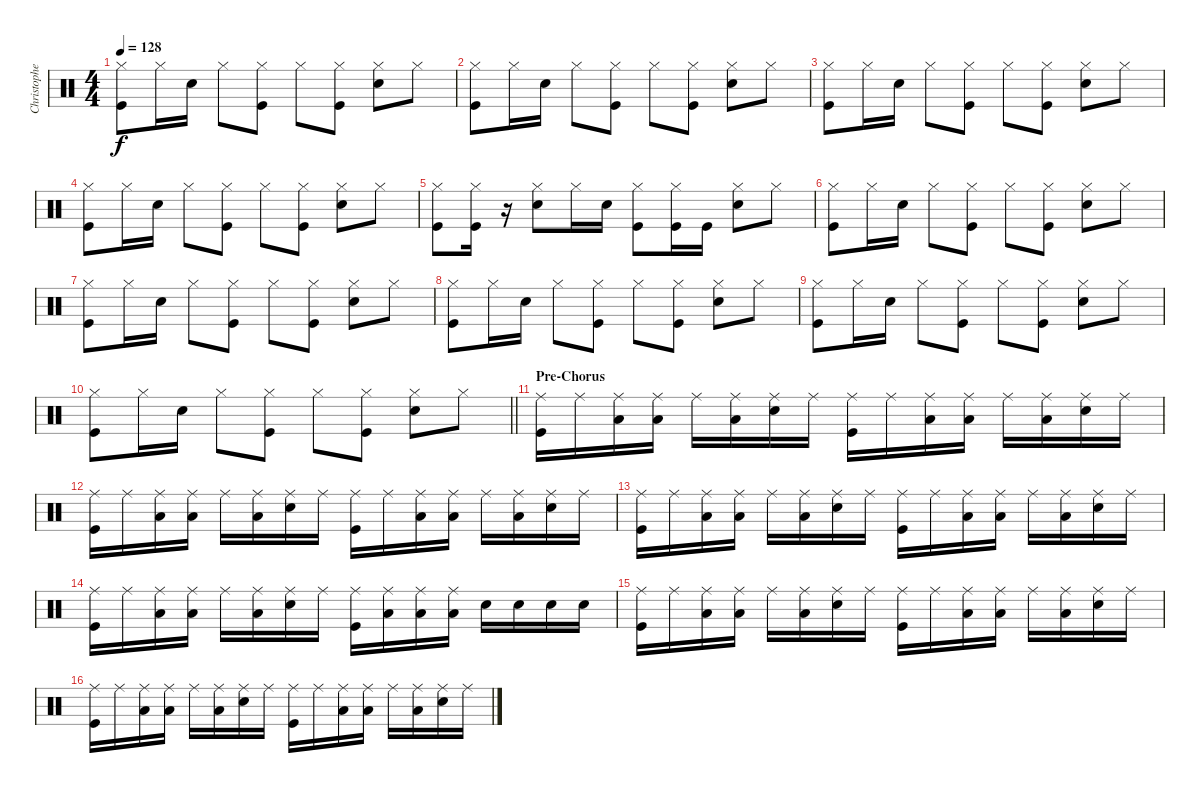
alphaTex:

\track ("Christopher - Drums" "Christophe") {instrument percussion}
\staff {score}
\articulation defaults
\ts (4 4)
\tempo 128
\clef neutral
\ks c
("Hi-Hat (closed)" "Kick (hit)").8{dy f} "Hi-Hat (closed)".16 "Snare (hit) 2".16 "Hi-Hat (closed)".8 ("Hi-Hat (closed)" "Kick (hit)").8 "Hi-Hat (closed)".8 ("Hi-Hat (closed)" "Kick (hit)").8 ("Hi-Hat (closed)" "Snare (hit) 2").8 "Hi-Hat (closed)".8 |
("Hi-Hat (closed)" "Kick (hit)").8 "Hi-Hat (closed)".16 "Snare (hit) 2".16 "Hi-Hat (closed)".8 ("Hi-Hat (closed)" "Kick (hit)").8 "Hi-Hat (closed)".8 ("Hi-Hat (closed)" "Kick (hit)").8 ("Hi-Hat (closed)" "Snare (hit) 2").8 "Hi-Hat (closed)".8 |
("Hi-Hat (closed)" "Kick (hit)").8 "Hi-Hat (closed)".16 "Snare (hit) 2".16 "Hi-Hat (closed)".8 ("Hi-Hat (closed)" "Kick (hit)").8 "Hi-Hat (closed)".8 ("Hi-Hat (closed)" "Kick (hit)").8 ("Hi-Hat (closed)" "Snare (hit) 2").8 "Hi-Hat (closed)".8 |
("Hi-Hat (closed)" "Kick (hit)").8 "Hi-Hat (closed)".16 "Snare (hit) 2".16 "Hi-Hat (closed)".8 ("Hi-Hat (closed)" "Kick (hit)").8 "Hi-Hat (closed)".8 ("Hi-Hat (closed)" "Kick (hit)").8 ("Hi-Hat (closed)" "Snare (hit) 2").8 "Hi-Hat (closed)".8 |
("Hi-Hat (closed)" "Kick (hit)").8 ("Hi-Hat (closed)" "Kick (hit)").16 r.16 ("Hi-Hat (closed)" "Snare (hit) 2").8 "Hi-Hat (closed)".16 "Snare (hit) 2".16 ("Hi-Hat (closed)" "Kick (hit)").8 ("Hi-Hat (closed)" "Kick (hit)").16 "Kick (hit)".16 ("Hi-Hat (closed)" "Snare (hit) 2").8 "Hi-Hat (closed)".8 |
("Hi-Hat (closed)" "Kick (hit)").8 "Hi-Hat (closed)".16 "Snare (hit) 2".16 "Hi-Hat (closed)".8 ("Hi-Hat (closed)" "Kick (hit)").8 "Hi-Hat (closed)".8 ("Hi-Hat (closed)" "Kick (hit)").8 ("Hi-Hat (closed)" "Snare (hit) 2").8 "Hi-Hat (closed)".8 |
("Hi-Hat (closed)" "Kick (hit)").8 "Hi-Hat (closed)".16 "Snare (hit) 2".16 "Hi-Hat (closed)".8 ("Hi-Hat (closed)" "Kick (hit)").8 "Hi-Hat (closed)".8 ("Hi-Hat (closed)" "Kick (hit)").8 ("Hi-Hat (closed)" "Snare (hit) 2").8 "Hi-Hat (closed)".8 |
("Hi-Hat (closed)" "Kick (hit)").8 "Hi-Hat (closed)".16 "Snare (hit) 2".16 "Hi-Hat (closed)".8 ("Hi-Hat (closed)" "Kick (hit)").8 "Hi-Hat (closed)".8 ("Hi-Hat (closed)" "Kick (hit)").8 ("Hi-Hat (closed)" "Snare (hit) 2").8 "Hi-Hat (closed)".8 |
("Hi-Hat (closed)" "Kick (hit)").8 "Hi-Hat (closed)".16 "Snare (hit) 2".16 "Hi-Hat (closed)".8 ("Hi-Hat (closed)" "Kick (hit)").8 "Hi-Hat (closed)".8 ("Hi-Hat (closed)" "Kick (hit)").8 ("Hi-Hat (closed)" "Snare (hit) 2").8 "Hi-Hat (closed)".8 |
\barLineRight lightlight
("Hi-Hat (closed)" "Kick (hit)").8 "Hi-Hat (closed)".16 "Snare (hit) 2".16 "Hi-Hat (closed)".8 ("Hi-Hat (closed)" "Kick (hit)").8 "Hi-Hat (closed)".8 ("Hi-Hat (closed)" "Kick (hit)").8 ("Hi-Hat (closed)" "Snare (hit) 2").8 "Hi-Hat (closed)".8 |
\section ("" "Pre-Chorus")
("Ride (middle)" "Kick (hit)").16 "Ride (middle)".16 ("Ride (middle)" "Low Tom (hit)").16 ("Ride (middle)" "Low Tom (hit)").16 "Ride (middle)".16 ("Ride (middle)" "Low Floor Tom (hit)").16 ("Ride (middle)" "Snare (hit) 2").16 "Ride (middle)".16 ("Ride (middle)" "Kick (hit)").16 "Ride (middle)".16 ("Ride (middle)" "Low Tom (hit)").16 ("Ride (middle)" "Low Tom (hit)").16 "Ride (middle)".16 ("Ride (middle)" "Low Floor Tom (hit)").16 ("Ride (middle)" "Snare (hit) 2").16 "Ride (middle)".16 |
("Ride (middle)" "Kick (hit)").16 "Ride (middle)".16 ("Ride (middle)" "Low Tom (hit)").16 ("Ride (middle)" "Low Tom (hit)").16 "Ride (middle)".16 ("Ride (middle)" "Low Floor Tom (hit)").16 ("Ride (middle)" "Snare (hit) 2").16 "Ride (middle)".16 ("Ride (middle)" "Kick (hit)").16 "Ride (middle)".16 ("Ride (middle)" "Low Tom (hit)").16 ("Ride (middle)" "Low Tom (hit)").16 "Ride (middle)".16 ("Ride (middle)" "Low Floor Tom (hit)").16 ("Ride (middle)" "Snare (hit) 2").16 "Ride (middle)".16 |
("Ride (middle)" "Kick (hit)").16 "Ride (middle)".16 ("Ride (middle)" "Low Tom (hit)").16 ("Ride (middle)" "Low Tom (hit)").16 "Ride (middle)".16 ("Ride (middle)" "Low Floor Tom (hit)").16 ("Ride (middle)" "Snare (hit) 2").16 "Ride (middle)".16 ("Ride (middle)" "Kick (hit)").16 "Ride (middle)".16 ("Ride (middle)" "Low Tom (hit)").16 ("Ride (middle)" "Low Tom (hit)").16 "Ride (middle)".16 ("Ride (middle)" "Low Floor Tom (hit)").16 ("Ride (middle)" "Snare (hit) 2").16 "Ride (middle)".16 |
("Ride (middle)" "Kick (hit)").16 "Ride (middle)".16 ("Ride (middle)" "Low Tom (hit)").16 ("Ride (middle)" "Low Tom (hit)").16 "Ride (middle)".16 ("Ride (middle)" "Low Floor Tom (hit)").16 ("Ride (middle)" "Snare (hit) 2").16 "Ride (middle)".16 ("Ride (middle)" "Kick (hit)").16 ("Ride (middle)" "Low Tom (hit)").16 ("Ride (middle)" "Low Tom (hit)").16 ("Ride (middle)" "Low Floor Tom (hit)").16 "Snare (hit) 2".16 "Snare (hit) 2".16 "Snare (hit) 2".16 "Snare (hit) 2".16 |
("Ride (middle)" "Kick (hit)").16 "Ride (middle)".16 ("Ride (middle)" "Low Tom (hit)").16 ("Ride (middle)" "Low Tom (hit)").16 "Ride (middle)".16 ("Ride (middle)" "Low Floor Tom (hit)").16 ("Ride (middle)" "Snare (hit) 2").16 "Ride (middle)".16 ("Ride (middle)" "Kick (hit)").16 "Ride (middle)".16 ("Ride (middle)" "Low Tom (hit)").16 ("Ride (middle)" "Low Tom (hit)").16 "Ride (middle)".16 ("Ride (middle)" "Low Floor Tom (hit)").16 ("Ride (middle)" "Snare (hit) 2").16 "Ride (middle)".16 |
("Ride (middle)" "Kick (hit)").16 "Ride (middle)".16 ("Ride (middle)" "Low Tom (hit)").16 ("Ride (middle)" "Low Tom (hit)").16 "Ride (middle)".16 ("Ride (middle)" "Low Floor Tom (hit)").16 ("Ride (middle)" "Snare (hit) 2").16 "Ride (middle)".16 ("Ride (middle)" "Kick (hit)").16 "Ride (middle)".16 ("Ride (middle)" "Low Tom (hit)").16 ("Ride (middle)" "Low Tom (hit)").16 "Ride (middle)".16 ("Ride (middle)" "Low Floor Tom (hit)").16 ("Ride (middle)" "Snare (hit) 2").16 "Ride (middle)".16
